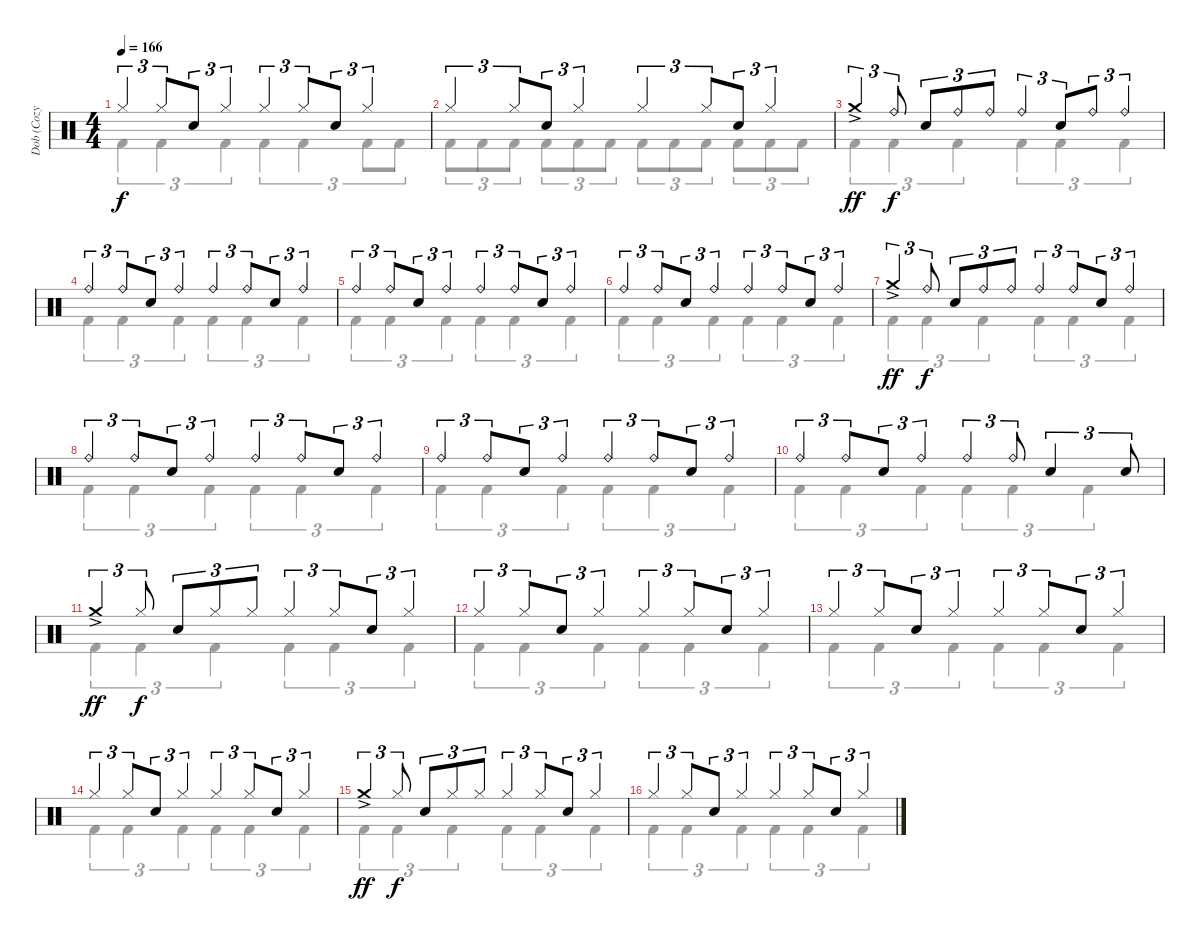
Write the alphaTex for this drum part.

\track ("Dob (Cozy Powell)" "Dob (Cozy ") {instrument percussion}
\staff {score}
\articulation defaults
\voice
\ts (4 4)
\tempo 166
\clef neutral
\ks c "Hi-Hat (closed)".4{tu (3 2) dy f} "Hi-Hat (closed)".8{tu (3 2) beam merge} "Electric Snare (hit)".8{tu (3 2)} "Hi-Hat (closed)".4{tu (3 2)} "Hi-Hat (closed)".4{tu (3 2)} "Hi-Hat (closed)".8{tu (3 2) beam merge} "Electric Snare (hit)".8{tu (3 2)} "Hi-Hat (closed)".4{tu (3 2)}
|
"Hi-Hat (closed)".4{tu (3 2)} "Hi-Hat (closed)".8{tu (3 2) beam merge} "Electric Snare (hit)".8{tu (3 2)} "Hi-Hat (closed)".4{tu (3 2)} "Hi-Hat (closed)".4{tu (3 2)} "Hi-Hat (closed)".8{tu (3 2) beam merge} "Electric Snare (hit)".8{tu (3 2)} "Hi-Hat (closed)".4{tu (3 2)} |
"Crash medium (hit)"{ac}.4{tu (3 2) dy ff} "Ride (bell)".8{tu (3 2) dy f} "Electric Snare (hit)".8{tu (3 2)} "Ride (bell)".8{tu (3 2)} "Ride (bell)".8{tu (3 2)} "Ride (bell)".4{tu (3 2)} "Electric Snare (hit)".8{tu (3 2) beam merge} "Ride (bell)".8{tu (3 2)} "Ride (bell)".4{tu (3 2)} |
"Ride (bell)".4{tu (3 2)} "Ride (bell)".8{tu (3 2) beam merge} "Electric Snare (hit)".8{tu (3 2)} "Ride (bell)".4{tu (3 2)} "Ride (bell)".4{tu (3 2)} "Ride (bell)".8{tu (3 2) beam merge} "Electric Snare (hit)".8{tu (3 2)} "Ride (bell)".4{tu (3 2)} |
"Ride (bell)".4{tu (3 2)} "Ride (bell)".8{tu (3 2) beam merge} "Electric Snare (hit)".8{tu (3 2)} "Ride (bell)".4{tu (3 2)} "Ride (bell)".4{tu (3 2)} "Ride (bell)".8{tu (3 2) beam merge} "Electric Snare (hit)".8{tu (3 2)} "Ride (bell)".4{tu (3 2)} |
"Ride (bell)".4{tu (3 2)} "Ride (bell)".8{tu (3 2) beam merge} "Electric Snare (hit)".8{tu (3 2)} "Ride (bell)".4{tu (3 2)} "Ride (bell)".4{tu (3 2)} "Ride (bell)".8{tu (3 2) beam merge} "Electric Snare (hit)".8{tu (3 2)} "Ride (bell)".4{tu (3 2)} |
"Crash medium (hit)"{ac}.4{tu (3 2) dy ff} "Ride (bell)".8{tu (3 2) dy f} "Electric Snare (hit)".8{tu (3 2)} "Ride (bell)".8{tu (3 2)} "Ride (bell)".8{tu (3 2)} "Ride (bell)".4{tu (3 2)} "Ride (bell)".8{tu (3 2) beam merge} "Electric Snare (hit)".8{tu (3 2)} "Ride (bell)".4{tu (3 2)} |
"Ride (bell)".4{tu (3 2)} "Ride (bell)".8{tu (3 2) beam merge} "Electric Snare (hit)".8{tu (3 2)} "Ride (bell)".4{tu (3 2)} "Ride (bell)".4{tu (3 2)} "Ride (bell)".8{tu (3 2) beam merge} "Electric Snare (hit)".8{tu (3 2)} "Ride (bell)".4{tu (3 2)} |
"Ride (bell)".4{tu (3 2)} "Ride (bell)".8{tu (3 2) beam merge} "Electric Snare (hit)".8{tu (3 2)} "Ride (bell)".4{tu (3 2)} "Ride (bell)".4{tu (3 2)} "Ride (bell)".8{tu (3 2) beam merge} "Electric Snare (hit)".8{tu (3 2)} "Ride (bell)".4{tu (3 2)} |
"Ride (bell)".4{tu (3 2)} "Ride (bell)".8{tu (3 2) beam merge} "Electric Snare (hit)".8{tu (3 2)} "Ride (bell)".4{tu (3 2)} "Ride (bell)".4{tu (3 2)} "Ride (bell)".8{tu (3 2)} "Electric Snare (hit)".4{tu (3 2)} "Electric Snare (hit)".8{tu (3 2)} |
"Crash medium (hit)"{ac}.4{tu (3 2) dy ff} "Hi-Hat (closed)".8{tu (3 2) dy f} "Electric Snare (hit)".8{tu (3 2)} "Hi-Hat (closed)".8{tu (3 2)} "Hi-Hat (closed)".8{tu (3 2)} "Hi-Hat (closed)".4{tu (3 2)} "Hi-Hat (closed)".8{tu (3 2) beam merge} "Electric Snare (hit)".8{tu (3 2)} "Hi-Hat (closed)".4{tu (3 2)} |
"Hi-Hat (closed)".4{tu (3 2)} "Hi-Hat (closed)".8{tu (3 2) beam merge} "Electric Snare (hit)".8{tu (3 2)} "Hi-Hat (closed)".4{tu (3 2)} "Hi-Hat (closed)".4{tu (3 2)} "Hi-Hat (closed)".8{tu (3 2) beam merge} "Electric Snare (hit)".8{tu (3 2)} "Hi-Hat (closed)".4{tu (3 2)} |
"Hi-Hat (closed)".4{tu (3 2)} "Hi-Hat (closed)".8{tu (3 2) beam merge} "Electric Snare (hit)".8{tu (3 2)} "Hi-Hat (closed)".4{tu (3 2)} "Hi-Hat (closed)".4{tu (3 2)} "Hi-Hat (closed)".8{tu (3 2) beam merge} "Electric Snare (hit)".8{tu (3 2)} "Hi-Hat (closed)".4{tu (3 2)} |
"Hi-Hat (closed)".4{tu (3 2)} "Hi-Hat (closed)".8{tu (3 2) beam merge} "Electric Snare (hit)".8{tu (3 2)} "Hi-Hat (closed)".4{tu (3 2)} "Hi-Hat (closed)".4{tu (3 2)} "Hi-Hat (closed)".8{tu (3 2) beam merge} "Electric Snare (hit)".8{tu (3 2)} "Hi-Hat (closed)".4{tu (3 2)} |
"Crash medium (hit)"{ac}.4{tu (3 2) dy ff} "Hi-Hat (closed)".8{tu (3 2) dy f} "Electric Snare (hit)".8{tu (3 2)} "Hi-Hat (closed)".8{tu (3 2)} "Hi-Hat (closed)".8{tu (3 2)} "Hi-Hat (closed)".4{tu (3 2)} "Hi-Hat (closed)".8{tu (3 2) beam merge} "Electric Snare (hit)".8{tu (3 2)} "Hi-Hat (closed)".4{tu (3 2)} |
"Hi-Hat (closed)".4{tu (3 2)} "Hi-Hat (closed)".8{tu (3 2) beam merge} "Electric Snare (hit)".8{tu (3 2)} "Hi-Hat (closed)".4{tu (3 2)} "Hi-Hat (closed)".4{tu (3 2)} "Hi-Hat (closed)".8{tu (3 2) beam merge} "Electric Snare (hit)".8{tu (3 2)} "Hi-Hat (closed)".4{tu (3 2)}
\voice
\clef neutral
\ottava regular
\simile none
\ks c "Kick (hit) 2".4{tu (3 2) dy f} "Kick (hit) 2".4{tu (3 2)} "Kick (hit) 2".4{tu (3 2)} "Kick (hit) 2".4{tu (3 2)} "Kick (hit) 2".4{tu (3 2)} "Kick (hit) 2".8{tu (3 2)} "Kick (hit) 2".8{tu (3 2)}
|
"Kick (hit) 2".8{tu (3 2)} "Kick (hit) 2".8{tu (3 2)} "Kick (hit) 2".8{tu (3 2)} "Kick (hit) 2".8{tu (3 2)} "Kick (hit) 2".8{tu (3 2)} "Kick (hit) 2".8{tu (3 2)} "Kick (hit) 2".8{tu (3 2)} "Kick (hit) 2".8{tu (3 2)} "Kick (hit) 2".8{tu (3 2)} "Kick (hit) 2".8{tu (3 2)} "Kick (hit) 2".8{tu (3 2)} "Kick (hit) 2".8{tu (3 2)} |
"Kick (hit) 2".4{tu (3 2)} "Kick (hit) 2".4{tu (3 2)} "Kick (hit) 2".4{tu (3 2)} "Kick (hit) 2".4{tu (3 2)} "Kick (hit) 2".4{tu (3 2)} "Kick (hit) 2".4{tu (3 2)} |
"Kick (hit) 2".4{tu (3 2)} "Kick (hit) 2".4{tu (3 2)} "Kick (hit) 2".4{tu (3 2)} "Kick (hit) 2".4{tu (3 2)} "Kick (hit) 2".4{tu (3 2)} "Kick (hit) 2".4{tu (3 2)} |
"Kick (hit) 2".4{tu (3 2)} "Kick (hit) 2".4{tu (3 2)} "Kick (hit) 2".4{tu (3 2)} "Kick (hit) 2".4{tu (3 2)} "Kick (hit) 2".4{tu (3 2)} "Kick (hit) 2".4{tu (3 2)} |
"Kick (hit) 2".4{tu (3 2)} "Kick (hit) 2".4{tu (3 2)} "Kick (hit) 2".4{tu (3 2)} "Kick (hit) 2".4{tu (3 2)} "Kick (hit) 2".4{tu (3 2)} "Kick (hit) 2".4{tu (3 2)} |
"Kick (hit) 2".4{tu (3 2)} "Kick (hit) 2".4{tu (3 2)} "Kick (hit) 2".4{tu (3 2)} "Kick (hit) 2".4{tu (3 2)} "Kick (hit) 2".4{tu (3 2)} "Kick (hit) 2".4{tu (3 2)} |
"Kick (hit) 2".4{tu (3 2)} "Kick (hit) 2".4{tu (3 2)} "Kick (hit) 2".4{tu (3 2)} "Kick (hit) 2".4{tu (3 2)} "Kick (hit) 2".4{tu (3 2)} "Kick (hit) 2".4{tu (3 2)} |
"Kick (hit) 2".4{tu (3 2)} "Kick (hit) 2".4{tu (3 2)} "Kick (hit) 2".4{tu (3 2)} "Kick (hit) 2".4{tu (3 2)} "Kick (hit) 2".4{tu (3 2)} "Kick (hit) 2".4{tu (3 2)} |
"Kick (hit) 2".4{tu (3 2)} "Kick (hit) 2".4{tu (3 2)} "Kick (hit) 2".4{tu (3 2)} "Kick (hit) 2".4{tu (3 2)} "Kick (hit) 2".4{tu (3 2)} "Kick (hit) 2".4{tu (3 2)} |
"Kick (hit) 2".4{tu (3 2)} "Kick (hit) 2".4{tu (3 2)} "Kick (hit) 2".4{tu (3 2)} "Kick (hit) 2".4{tu (3 2)} "Kick (hit) 2".4{tu (3 2)} "Kick (hit) 2".4{tu (3 2)} |
"Kick (hit) 2".4{tu (3 2)} "Kick (hit) 2".4{tu (3 2)} "Kick (hit) 2".4{tu (3 2)} "Kick (hit) 2".4{tu (3 2)} "Kick (hit) 2".4{tu (3 2)} "Kick (hit) 2".4{tu (3 2)} |
"Kick (hit) 2".4{tu (3 2)} "Kick (hit) 2".4{tu (3 2)} "Kick (hit) 2".4{tu (3 2)} "Kick (hit) 2".4{tu (3 2)} "Kick (hit) 2".4{tu (3 2)} "Kick (hit) 2".4{tu (3 2)} |
"Kick (hit) 2".4{tu (3 2)} "Kick (hit) 2".4{tu (3 2)} "Kick (hit) 2".4{tu (3 2)} "Kick (hit) 2".4{tu (3 2)} "Kick (hit) 2".4{tu (3 2)} "Kick (hit) 2".4{tu (3 2)} |
"Kick (hit) 2".4{tu (3 2)} "Kick (hit) 2".4{tu (3 2)} "Kick (hit) 2".4{tu (3 2)} "Kick (hit) 2".4{tu (3 2)} "Kick (hit) 2".4{tu (3 2)} "Kick (hit) 2".4{tu (3 2)} |
"Kick (hit) 2".4{tu (3 2)} "Kick (hit) 2".4{tu (3 2)} "Kick (hit) 2".4{tu (3 2)} "Kick (hit) 2".4{tu (3 2)} "Kick (hit) 2".4{tu (3 2)} "Kick (hit) 2".4{tu (3 2)}
